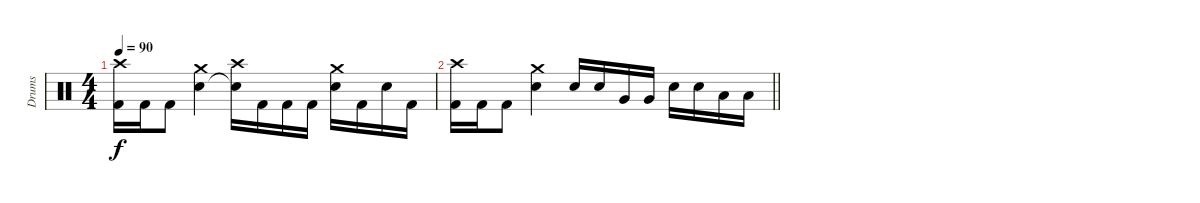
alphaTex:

\track ("Drums" "Drums") {instrument percussion}
\staff {score}
\articulation defaults
\ts (4 4)
\tempo 90
\clef neutral
\ks c
("Kick (hit) 2" "Crash high (hit)").16{dy f} "Kick (hit) 2".16 "Kick (hit) 2".8 ("Snare (hit) 2" "Crash medium (hit)").4 ("Snare (hit)"{t} "Crash high (hit)").16 "Kick (hit) 2".16 "Kick (hit) 2".16 "Kick (hit) 2".16 ("Snare (hit) 2" "Crash medium (hit)").16 "Kick (hit) 2".16 "Snare (hit) 2".16 "Kick (hit) 2".16 |
\barLineRight lightlight
("Kick (hit) 2" "Crash high (hit)").16 "Kick (hit) 2".16 "Kick (hit) 2".8 ("Snare (hit) 2" "Crash medium (hit)").4 "Snare (hit) 2".16 "Snare (hit) 2".16 "Very Low Tom (hit)".16 "Very Low Tom (hit)".16 "Snare (hit) 2".16 "Snare (hit) 2".16 "Low Floor Tom (hit)".16 "Low Floor Tom (hit)".16
